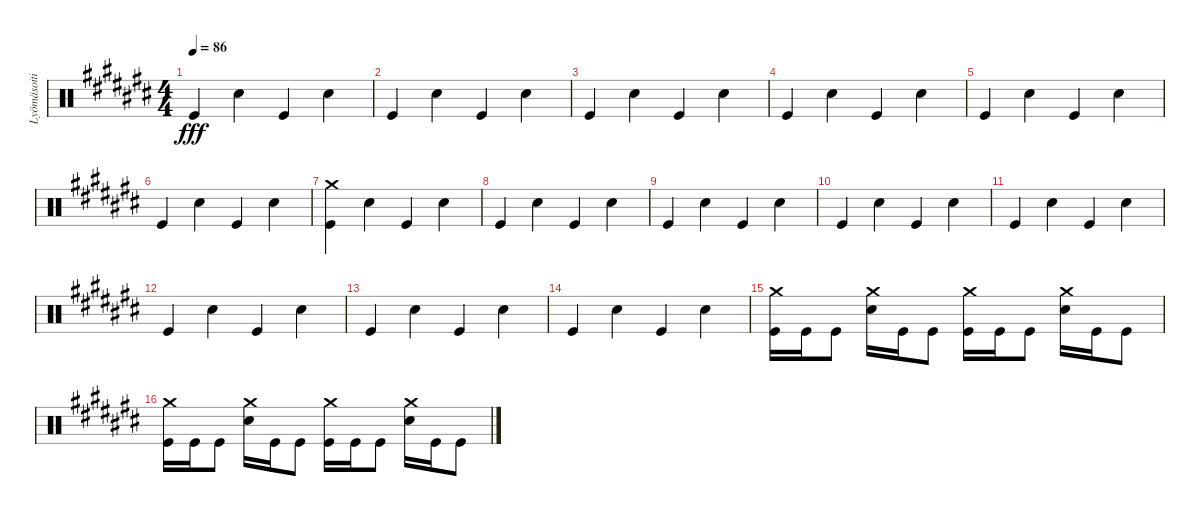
\track ("Lyömäsoitin" "Lyömäsoiti") {instrument percussion}
\staff {score}
\articulation defaults
\ts (4 4)
\tempo 86
\clef neutral
\ks c# "Kick (hit)".4{dy fff} "Snare (hit) 2".4 "Kick (hit)".4 "Snare (hit) 2".4
|
"Kick (hit)".4 "Snare (hit) 2".4 "Kick (hit)".4 "Snare (hit) 2".4 |
"Kick (hit)".4 "Snare (hit) 2".4 "Kick (hit)".4 "Snare (hit) 2".4 |
"Kick (hit)".4 "Snare (hit) 2".4 "Kick (hit)".4 "Snare (hit) 2".4 |
"Kick (hit)".4 "Snare (hit) 2".4 "Kick (hit)".4 "Snare (hit) 2".4 |
"Kick (hit)".4 "Snare (hit) 2".4 "Kick (hit)".4 "Snare (hit) 2".4 |
("Crash medium (hit)" "Kick (hit)").4 "Snare (hit) 2".4 "Kick (hit)".4 "Snare (hit) 2".4 |
"Kick (hit)".4 "Snare (hit) 2".4 "Kick (hit)".4 "Snare (hit) 2".4 |
"Kick (hit)".4 "Snare (hit) 2".4 "Kick (hit)".4 "Snare (hit) 2".4 |
"Kick (hit)".4 "Snare (hit) 2".4 "Kick (hit)".4 "Snare (hit) 2".4 |
"Kick (hit)".4 "Snare (hit) 2".4 "Kick (hit)".4 "Snare (hit) 2".4 |
"Kick (hit)".4 "Snare (hit) 2".4 "Kick (hit)".4 "Snare (hit) 2".4 |
"Kick (hit)".4 "Snare (hit) 2".4 "Kick (hit)".4 "Snare (hit) 2".4 |
"Kick (hit)".4 "Snare (hit) 2".4 "Kick (hit)".4 "Snare (hit) 2".4 |
("Crash medium (hit)" "Kick (hit)").16 "Kick (hit)".16 "Kick (hit)".8 ("Crash medium (hit)" "Snare (hit) 2").16 "Kick (hit)".16 "Kick (hit)".8 ("Crash medium (hit)" "Kick (hit)").16 "Kick (hit)".16 "Kick (hit)".8 ("Crash medium (hit)" "Snare (hit) 2").16 "Kick (hit)".16 "Kick (hit)".8 |
("Crash medium (hit)" "Kick (hit)").16 "Kick (hit)".16 "Kick (hit)".8 ("Crash medium (hit)" "Snare (hit) 2").16 "Kick (hit)".16 "Kick (hit)".8 ("Crash medium (hit)" "Kick (hit)").16 "Kick (hit)".16 "Kick (hit)".8 ("Crash medium (hit)" "Snare (hit) 2").16 "Kick (hit)".16 "Kick (hit)".8
